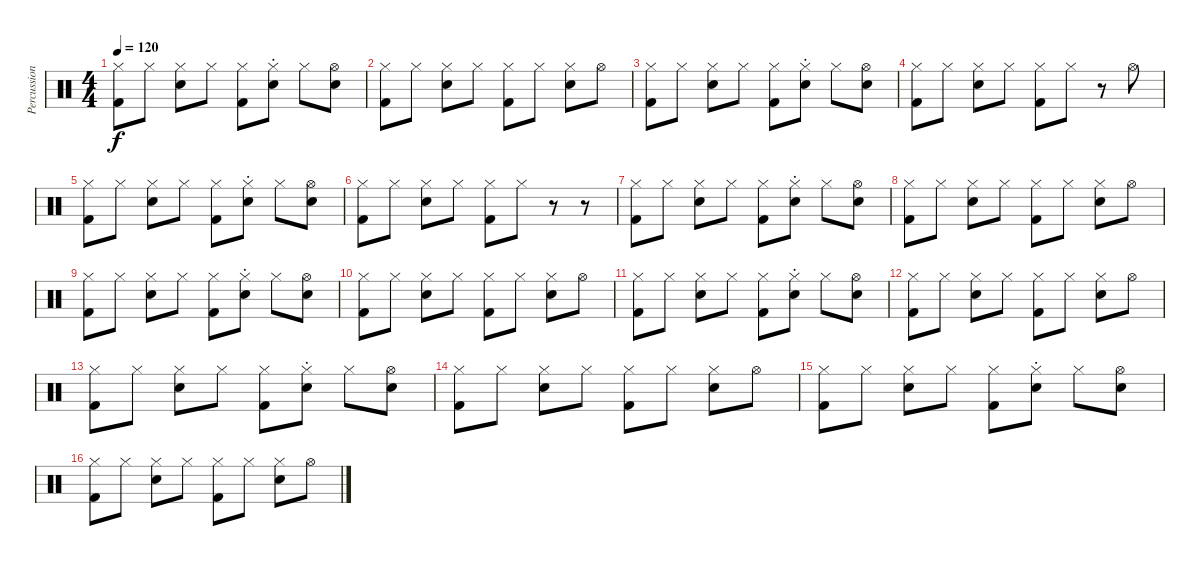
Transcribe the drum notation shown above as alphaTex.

\track ("Percussion" "Percussion") {instrument percussion}
\staff {score}
\articulation defaults
\ts (4 4)
\tempo 120
\clef neutral
\ks c
("Hi-Hat (closed)" "Kick (hit) 2").8{dy f} "Hi-Hat (closed)".8 ("Hi-Hat (closed)" "Snare (hit) 2").8 "Hi-Hat (closed)".8 ("Hi-Hat (closed)" "Kick (hit) 2").8 ("Hi-Hat (closed)"{st} "Snare (hit) 2"{st}).8 "Hi-Hat (closed)".8 ("Hi-Hat (open)" "Snare (hit) 2").8 |
("Hi-Hat (closed)" "Kick (hit) 2").8 "Hi-Hat (closed)".8 ("Hi-Hat (closed)" "Snare (hit) 2").8 "Hi-Hat (closed)".8 ("Hi-Hat (closed)" "Kick (hit) 2").8 "Hi-Hat (closed)".8 ("Hi-Hat (closed)" "Snare (hit) 2").8 "Hi-Hat (open)".8 |
("Hi-Hat (closed)" "Kick (hit) 2").8 "Hi-Hat (closed)".8 ("Hi-Hat (closed)" "Snare (hit) 2").8 "Hi-Hat (closed)".8 ("Hi-Hat (closed)" "Kick (hit) 2").8 ("Hi-Hat (closed)"{st} "Snare (hit) 2"{st}).8 "Hi-Hat (closed)".8 ("Hi-Hat (open)" "Snare (hit) 2").8 |
("Hi-Hat (closed)" "Kick (hit) 2").8 "Hi-Hat (closed)".8 ("Hi-Hat (closed)" "Snare (hit) 2").8 "Hi-Hat (closed)".8 ("Hi-Hat (closed)" "Kick (hit) 2").8 "Hi-Hat (closed)".8 r.8 "Hi-Hat (open)".8 |
("Hi-Hat (closed)" "Kick (hit) 2").8 "Hi-Hat (closed)".8 ("Hi-Hat (closed)" "Snare (hit) 2").8 "Hi-Hat (closed)".8 ("Hi-Hat (closed)" "Kick (hit) 2").8 ("Hi-Hat (closed)"{st} "Snare (hit) 2"{st}).8 "Hi-Hat (closed)".8 ("Hi-Hat (open)" "Snare (hit) 2").8 |
("Hi-Hat (closed)" "Kick (hit) 2").8 "Hi-Hat (closed)".8 ("Hi-Hat (closed)" "Snare (hit) 2").8 "Hi-Hat (closed)".8 ("Hi-Hat (closed)" "Kick (hit) 2").8 "Hi-Hat (closed)".8 r.8 r.8 |
("Hi-Hat (closed)" "Kick (hit) 2").8 "Hi-Hat (closed)".8 ("Hi-Hat (closed)" "Snare (hit) 2").8 "Hi-Hat (closed)".8 ("Hi-Hat (closed)" "Kick (hit) 2").8 ("Hi-Hat (closed)"{st} "Snare (hit) 2"{st}).8 "Hi-Hat (closed)".8 ("Hi-Hat (open)" "Snare (hit) 2").8 |
("Hi-Hat (closed)" "Kick (hit) 2").8 "Hi-Hat (closed)".8 ("Hi-Hat (closed)" "Snare (hit) 2").8 "Hi-Hat (closed)".8 ("Hi-Hat (closed)" "Kick (hit) 2").8 "Hi-Hat (closed)".8 ("Hi-Hat (closed)" "Snare (hit) 2").8 "Hi-Hat (open)".8 |
("Hi-Hat (closed)" "Kick (hit) 2").8 "Hi-Hat (closed)".8 ("Hi-Hat (closed)" "Snare (hit) 2").8 "Hi-Hat (closed)".8 ("Hi-Hat (closed)" "Kick (hit) 2").8 ("Hi-Hat (closed)"{st} "Snare (hit) 2"{st}).8 "Hi-Hat (closed)".8 ("Hi-Hat (open)" "Snare (hit) 2").8 |
("Hi-Hat (closed)" "Kick (hit) 2").8 "Hi-Hat (closed)".8 ("Hi-Hat (closed)" "Snare (hit) 2").8 "Hi-Hat (closed)".8 ("Hi-Hat (closed)" "Kick (hit) 2").8 "Hi-Hat (closed)".8 ("Hi-Hat (closed)" "Snare (hit) 2").8 "Hi-Hat (open)".8 |
("Hi-Hat (closed)" "Kick (hit) 2").8 "Hi-Hat (closed)".8 ("Hi-Hat (closed)" "Snare (hit) 2").8 "Hi-Hat (closed)".8 ("Hi-Hat (closed)" "Kick (hit) 2").8 ("Hi-Hat (closed)"{st} "Snare (hit) 2"{st}).8 "Hi-Hat (closed)".8 ("Hi-Hat (open)" "Snare (hit) 2").8 |
("Hi-Hat (closed)" "Kick (hit) 2").8 "Hi-Hat (closed)".8 ("Hi-Hat (closed)" "Snare (hit) 2").8 "Hi-Hat (closed)".8 ("Hi-Hat (closed)" "Kick (hit) 2").8 "Hi-Hat (closed)".8 ("Hi-Hat (closed)" "Snare (hit) 2").8 "Hi-Hat (open)".8 |
("Hi-Hat (closed)" "Kick (hit) 2").8 "Hi-Hat (closed)".8 ("Hi-Hat (closed)" "Snare (hit) 2").8 "Hi-Hat (closed)".8 ("Hi-Hat (closed)" "Kick (hit) 2").8 ("Hi-Hat (closed)"{st} "Snare (hit) 2"{st}).8 "Hi-Hat (closed)".8 ("Hi-Hat (open)" "Snare (hit) 2").8 |
("Hi-Hat (closed)" "Kick (hit) 2").8 "Hi-Hat (closed)".8 ("Hi-Hat (closed)" "Snare (hit) 2").8 "Hi-Hat (closed)".8 ("Hi-Hat (closed)" "Kick (hit) 2").8 "Hi-Hat (closed)".8 ("Hi-Hat (closed)" "Snare (hit) 2").8 "Hi-Hat (open)".8 |
("Hi-Hat (closed)" "Kick (hit) 2").8 "Hi-Hat (closed)".8 ("Hi-Hat (closed)" "Snare (hit) 2").8 "Hi-Hat (closed)".8 ("Hi-Hat (closed)" "Kick (hit) 2").8 ("Hi-Hat (closed)"{st} "Snare (hit) 2"{st}).8 "Hi-Hat (closed)".8 ("Hi-Hat (open)" "Snare (hit) 2").8 |
("Hi-Hat (closed)" "Kick (hit) 2").8 "Hi-Hat (closed)".8 ("Hi-Hat (closed)" "Snare (hit) 2").8 "Hi-Hat (closed)".8 ("Hi-Hat (closed)" "Kick (hit) 2").8 "Hi-Hat (closed)".8 ("Hi-Hat (closed)" "Snare (hit) 2").8 "Hi-Hat (open)".8
